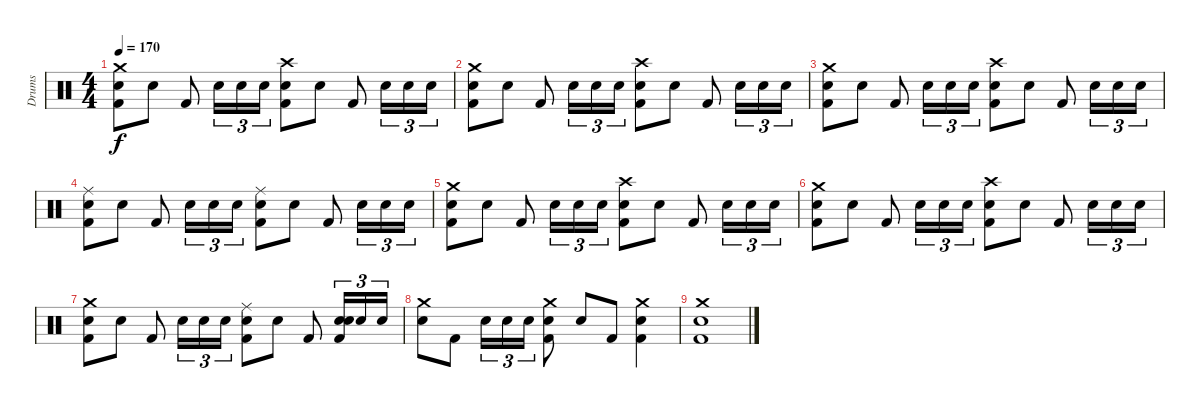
\track ("Drums" "Drums") {instrument percussion}
\staff {score}
\articulation defaults
\ts (4 4)
\tempo 170
\clef neutral
\ks c
("Kick (hit) 2" "Snare (hit) 2" "Crash medium (hit)").8{dy f} "Snare (hit) 2".8 "Kick (hit) 2".8 "Snare (hit) 2".16{tu (3 2)} "Snare (hit) 2".16{tu (3 2)} "Snare (hit) 2".16{tu (3 2)} ("Kick (hit) 2" "Snare (hit) 2" "Crash high (hit)").8 "Snare (hit) 2".8 "Kick (hit) 2".8 "Snare (hit) 2".16{tu (3 2)} "Snare (hit) 2".16{tu (3 2)} "Snare (hit) 2".16{tu (3 2)} |
("Kick (hit) 2" "Snare (hit) 2" "Crash medium (hit)").8 "Snare (hit) 2".8 "Kick (hit) 2".8 "Snare (hit) 2".16{tu (3 2)} "Snare (hit) 2".16{tu (3 2)} "Snare (hit) 2".16{tu (3 2)} ("Kick (hit) 2" "Snare (hit) 2" "Crash high (hit)").8 "Snare (hit) 2".8 "Kick (hit) 2".8 "Snare (hit) 2".16{tu (3 2)} "Snare (hit) 2".16{tu (3 2)} "Snare (hit) 2".16{tu (3 2)} |
("Kick (hit) 2" "Snare (hit) 2" "Crash medium (hit)").8 "Snare (hit) 2".8 "Kick (hit) 2".8 "Snare (hit) 2".16{tu (3 2)} "Snare (hit) 2".16{tu (3 2)} "Snare (hit) 2".16{tu (3 2)} ("Kick (hit) 2" "Snare (hit) 2" "Crash high (hit)").8 "Snare (hit) 2".8 "Kick (hit) 2".8 "Snare (hit) 2".16{tu (3 2)} "Snare (hit) 2".16{tu (3 2)} "Snare (hit) 2".16{tu (3 2)} |
("Kick (hit) 2" "Snare (hit) 2" "Ride (middle)").8 "Snare (hit) 2".8 "Kick (hit) 2".8 "Snare (hit) 2".16{tu (3 2)} "Snare (hit) 2".16{tu (3 2)} "Snare (hit) 2".16{tu (3 2)} ("Kick (hit) 2" "Snare (hit) 2" "Ride (middle)").8 "Snare (hit) 2".8 "Kick (hit) 2".8 "Snare (hit) 2".16{tu (3 2)} "Snare (hit) 2".16{tu (3 2)} "Snare (hit) 2".16{tu (3 2)} |
("Kick (hit) 2" "Snare (hit) 2" "Crash medium (hit)").8 "Snare (hit) 2".8 "Kick (hit) 2".8 "Snare (hit) 2".16{tu (3 2)} "Snare (hit) 2".16{tu (3 2)} "Snare (hit) 2".16{tu (3 2)} ("Kick (hit) 2" "Snare (hit) 2" "Crash high (hit)").8 "Snare (hit) 2".8 "Kick (hit) 2".8 "Snare (hit) 2".16{tu (3 2)} "Snare (hit) 2".16{tu (3 2)} "Snare (hit) 2".16{tu (3 2)} |
("Kick (hit) 2" "Snare (hit) 2" "Crash medium (hit)").8 "Snare (hit) 2".8 "Kick (hit) 2".8 "Snare (hit) 2".16{tu (3 2)} "Snare (hit) 2".16{tu (3 2)} "Snare (hit) 2".16{tu (3 2)} ("Kick (hit) 2" "Snare (hit) 2" "Crash high (hit)").8 "Snare (hit) 2".8 "Kick (hit) 2".8 "Snare (hit) 2".16{tu (3 2)} "Snare (hit) 2".16{tu (3 2)} "Snare (hit) 2".16{tu (3 2)} |
("Kick (hit) 2" "Snare (hit) 2" "Crash medium (hit)").8 "Snare (hit) 2".8 "Kick (hit) 2".8 "Snare (hit) 2".16{tu (3 2)} "Snare (hit) 2".16{tu (3 2)} "Snare (hit) 2".16{tu (3 2)} ("Kick (hit) 2" "Snare (hit) 2" "Ride (middle)").8 "Snare (hit) 2".8 "Kick (hit) 2".8 ("Snare (hit) 2" "Kick (hit) 2" "Snare (hit) 2").16{tu (3 2)} "Snare (hit) 2".16{tu (3 2)} "Snare (hit) 2".16{tu (3 2)} |
("Snare (hit) 2" "Crash medium (hit)").8 "Kick (hit) 2".8 "Snare (hit) 2".16{tu (3 2)} "Snare (hit) 2".16{tu (3 2)} "Snare (hit) 2".16{tu (3 2)} ("Snare (hit) 2" "Kick (hit) 2" "Crash medium (hit)").8 "Snare (hit) 2".8 "Kick (hit) 2".8 ("Kick (hit) 2" "Snare (hit) 2" "Crash medium (hit)").4 |
("Crash medium (hit)" "Electric Snare (hit)" "Kick (hit) 2").1
